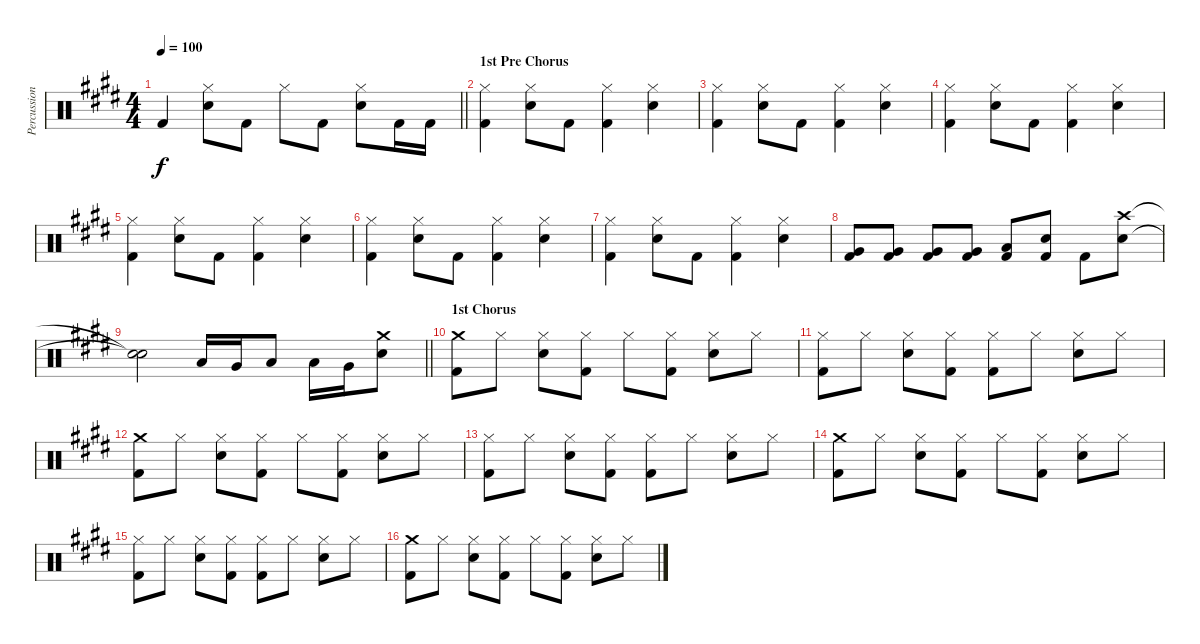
\track ("Percussion" "Percussion") {instrument percussion}
\staff {score}
\articulation defaults
\ts (4 4)
\tempo 100
\clef neutral
\barLineRight lightlight
\ks c#minor "Kick (hit) 2".4{dy f}
("Hi-Hat (closed)" "Snare (hit) 2").8 "Kick (hit) 2".8 "Hi-Hat (closed)".8 "Kick (hit) 2".8 ("Hi-Hat (closed)" "Snare (hit) 2").8 "Kick (hit) 2".16 "Kick (hit) 2".16 |
\section ("" "1st Pre Chorus")
("Hi-Hat (closed)" "Kick (hit) 2").4 ("Hi-Hat (closed)" "Snare (hit) 2").8 "Kick (hit) 2".8 ("Hi-Hat (closed)" "Kick (hit) 2").4 ("Hi-Hat (closed)" "Snare (hit) 2").4 |
("Hi-Hat (closed)" "Kick (hit) 2").4 ("Hi-Hat (closed)" "Snare (hit) 2").8 "Kick (hit) 2".8 ("Hi-Hat (closed)" "Kick (hit) 2").4 ("Hi-Hat (closed)" "Snare (hit) 2").4 |
("Hi-Hat (closed)" "Kick (hit) 2").4 ("Hi-Hat (closed)" "Snare (hit) 2").8 "Kick (hit) 2".8 ("Hi-Hat (closed)" "Kick (hit) 2").4 ("Hi-Hat (closed)" "Snare (hit) 2").4 |
("Hi-Hat (closed)" "Kick (hit) 2").4 ("Hi-Hat (closed)" "Snare (hit) 2").8 "Kick (hit) 2".8 ("Hi-Hat (closed)" "Kick (hit) 2").4 ("Hi-Hat (closed)" "Snare (hit) 2").4 |
("Hi-Hat (closed)" "Kick (hit) 2").4 ("Hi-Hat (closed)" "Snare (hit) 2").8 "Kick (hit) 2".8 ("Hi-Hat (closed)" "Kick (hit) 2").4 ("Hi-Hat (closed)" "Snare (hit) 2").4 |
("Hi-Hat (closed)" "Kick (hit) 2").4 ("Hi-Hat (closed)" "Snare (hit) 2").8 "Kick (hit) 2".8 ("Hi-Hat (closed)" "Kick (hit) 2").4 ("Hi-Hat (closed)" "Snare (hit) 2").4 |
("Very Low Tom (hit)" "Kick (hit) 2").8 ("Very Low Tom (hit)" "Kick (hit) 2").8 ("Very Low Tom (hit)" "Kick (hit) 2").8 ("Very Low Tom (hit)" "Kick (hit) 2").8 ("Low Floor Tom (hit)" "Kick (hit) 2").8 ("Snare (hit) 2" "Kick (hit) 2").8 "Kick (hit) 2".8 ("Crash high (hit)" "Snare (hit) 2").8 |
\barLineRight lightlight
("Snare (hit)"{t} "Snare (hit)"{t}).2 "Low Tom (hit)".16 "Very Low Tom (hit)".16 "Low Floor Tom (hit)".8 "Low Tom (hit)".16 "Very Low Tom (hit)".16 ("Crash medium (hit)" "Snare (hit) 2").8 |
\section ("" "1st Chorus")
("Crash medium (hit)" "Kick (hit) 2").8 "Hi-Hat (closed)".8 ("Hi-Hat (closed)" "Snare (hit) 2").8 ("Hi-Hat (closed)" "Kick (hit) 2").8 "Hi-Hat (closed)".8 ("Hi-Hat (closed)" "Kick (hit) 2").8 ("Hi-Hat (closed)" "Snare (hit) 2").8 "Hi-Hat (closed)".8 |
("Hi-Hat (closed)" "Kick (hit) 2").8 "Hi-Hat (closed)".8 ("Hi-Hat (closed)" "Snare (hit) 2").8 ("Hi-Hat (closed)" "Kick (hit) 2").8 ("Hi-Hat (closed)" "Kick (hit) 2").8 "Hi-Hat (closed)".8 ("Hi-Hat (closed)" "Snare (hit) 2").8 "Hi-Hat (closed)".8 |
("Crash medium (hit)" "Kick (hit) 2").8 "Hi-Hat (closed)".8 ("Hi-Hat (closed)" "Snare (hit) 2").8 ("Hi-Hat (closed)" "Kick (hit) 2").8 "Hi-Hat (closed)".8 ("Hi-Hat (closed)" "Kick (hit) 2").8 ("Hi-Hat (closed)" "Snare (hit) 2").8 "Hi-Hat (closed)".8 |
("Hi-Hat (closed)" "Kick (hit) 2").8 "Hi-Hat (closed)".8 ("Hi-Hat (closed)" "Snare (hit) 2").8 ("Hi-Hat (closed)" "Kick (hit) 2").8 ("Hi-Hat (closed)" "Kick (hit) 2").8 "Hi-Hat (closed)".8 ("Hi-Hat (closed)" "Snare (hit) 2").8 "Hi-Hat (closed)".8 |
("Crash medium (hit)" "Kick (hit) 2").8 "Hi-Hat (closed)".8 ("Hi-Hat (closed)" "Snare (hit) 2").8 ("Hi-Hat (closed)" "Kick (hit) 2").8 "Hi-Hat (closed)".8 ("Hi-Hat (closed)" "Kick (hit) 2").8 ("Hi-Hat (closed)" "Snare (hit) 2").8 "Hi-Hat (closed)".8 |
("Hi-Hat (closed)" "Kick (hit) 2").8 "Hi-Hat (closed)".8 ("Hi-Hat (closed)" "Snare (hit) 2").8 ("Hi-Hat (closed)" "Kick (hit) 2").8 ("Hi-Hat (closed)" "Kick (hit) 2").8 "Hi-Hat (closed)".8 ("Hi-Hat (closed)" "Snare (hit) 2").8 "Hi-Hat (closed)".8 |
("Crash medium (hit)" "Kick (hit) 2").8 "Hi-Hat (closed)".8 ("Hi-Hat (closed)" "Snare (hit) 2").8 ("Hi-Hat (closed)" "Kick (hit) 2").8 "Hi-Hat (closed)".8 ("Hi-Hat (closed)" "Kick (hit) 2").8 ("Hi-Hat (closed)" "Snare (hit) 2").8 "Hi-Hat (closed)".8
